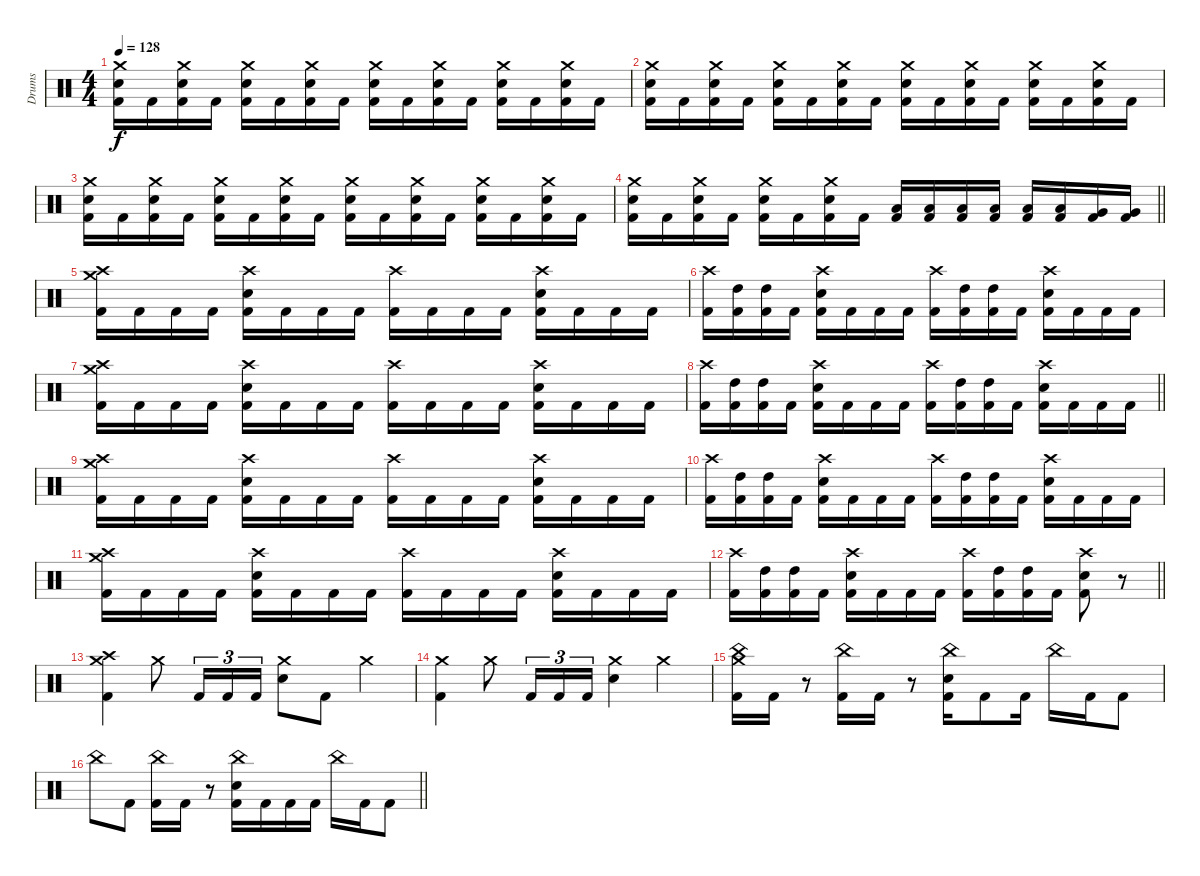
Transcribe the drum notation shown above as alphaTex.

\track ("Drums" "Drums") {instrument percussion}
\staff {score}
\articulation defaults
\ts (4 4)
\tempo 128
\clef neutral
\ks c
("Crash medium (hit)" "Electric Snare (hit)" "Kick (hit) 2").16{dy f} "Kick (hit) 2".16 ("Crash medium (hit)" "Electric Snare (hit)" "Kick (hit) 2").16 "Kick (hit) 2".16 ("Crash medium (hit)" "Electric Snare (hit)" "Kick (hit) 2").16 "Kick (hit) 2".16 ("Crash medium (hit)" "Electric Snare (hit)" "Kick (hit) 2").16 "Kick (hit) 2".16 ("Crash medium (hit)" "Electric Snare (hit)" "Kick (hit) 2").16 "Kick (hit) 2".16 ("Crash medium (hit)" "Electric Snare (hit)" "Kick (hit) 2").16 "Kick (hit) 2".16 ("Crash medium (hit)" "Electric Snare (hit)" "Kick (hit) 2").16 "Kick (hit) 2".16 ("Crash medium (hit)" "Electric Snare (hit)" "Kick (hit) 2").16 "Kick (hit) 2".16 |
("Crash medium (hit)" "Electric Snare (hit)" "Kick (hit) 2").16 "Kick (hit) 2".16 ("Crash medium (hit)" "Electric Snare (hit)" "Kick (hit) 2").16 "Kick (hit) 2".16 ("Crash medium (hit)" "Electric Snare (hit)" "Kick (hit) 2").16 "Kick (hit) 2".16 ("Crash medium (hit)" "Electric Snare (hit)" "Kick (hit) 2").16 "Kick (hit) 2".16 ("Crash medium (hit)" "Electric Snare (hit)" "Kick (hit) 2").16 "Kick (hit) 2".16 ("Crash medium (hit)" "Electric Snare (hit)" "Kick (hit) 2").16 "Kick (hit) 2".16 ("Crash medium (hit)" "Electric Snare (hit)" "Kick (hit) 2").16 "Kick (hit) 2".16 ("Crash medium (hit)" "Electric Snare (hit)" "Kick (hit) 2").16 "Kick (hit) 2".16 |
("Crash medium (hit)" "Electric Snare (hit)" "Kick (hit) 2").16 "Kick (hit) 2".16 ("Crash medium (hit)" "Electric Snare (hit)" "Kick (hit) 2").16 "Kick (hit) 2".16 ("Crash medium (hit)" "Electric Snare (hit)" "Kick (hit) 2").16 "Kick (hit) 2".16 ("Crash medium (hit)" "Electric Snare (hit)" "Kick (hit) 2").16 "Kick (hit) 2".16 ("Crash medium (hit)" "Electric Snare (hit)" "Kick (hit) 2").16 "Kick (hit) 2".16 ("Crash medium (hit)" "Electric Snare (hit)" "Kick (hit) 2").16 "Kick (hit) 2".16 ("Crash medium (hit)" "Electric Snare (hit)" "Kick (hit) 2").16 "Kick (hit) 2".16 ("Crash medium (hit)" "Electric Snare (hit)" "Kick (hit) 2").16 "Kick (hit) 2".16 |
\barLineRight lightlight
("Crash medium (hit)" "Electric Snare (hit)" "Kick (hit) 2").16 "Kick (hit) 2".16 ("Crash medium (hit)" "Electric Snare (hit)" "Kick (hit) 2").16 "Kick (hit) 2".16 ("Crash medium (hit)" "Electric Snare (hit)" "Kick (hit) 2").16 "Kick (hit) 2".16 ("Crash medium (hit)" "Electric Snare (hit)" "Kick (hit) 2").16 "Kick (hit) 2".16 ("Low Tom (hit)" "Kick (hit) 2").16 ("Low Tom (hit)" "Kick (hit) 2").16 ("Low Tom (hit)" "Kick (hit) 2").16 ("Low Tom (hit)" "Kick (hit) 2").16 ("Low Tom (hit)" "Kick (hit) 2").16 ("Low Tom (hit)" "Kick (hit) 2").16 ("Very Low Tom (hit)" "Kick (hit) 2").16 ("Very Low Tom (hit)" "Kick (hit) 2").16 |
("Crash high (hit)" "Crash medium (hit)" "Kick (hit) 2").16 "Kick (hit) 2".16 "Kick (hit) 2".16 "Kick (hit) 2".16 ("Crash high (hit)" "Electric Snare (hit)" "Kick (hit) 2").16 "Kick (hit) 2".16 "Kick (hit) 2".16 "Kick (hit) 2".16 ("Crash high (hit)" "Kick (hit) 2").16 "Kick (hit) 2".16 "Kick (hit) 2".16 "Kick (hit) 2".16 ("Crash high (hit)" "Electric Snare (hit)" "Kick (hit) 2").16 "Kick (hit) 2".16 "Kick (hit) 2".16 "Kick (hit) 2".16 |
("Crash high (hit)" "Kick (hit) 2").16 ("High Tom (hit)" "Kick (hit) 2").16 ("High Tom (hit)" "Kick (hit) 2").16 "Kick (hit) 2".16 ("Crash high (hit)" "Electric Snare (hit)" "Kick (hit) 2").16 "Kick (hit) 2".16 "Kick (hit) 2".16 "Kick (hit) 2".16 ("Crash high (hit)" "Kick (hit) 2").16 ("High Tom (hit)" "Kick (hit) 2").16 ("High Tom (hit)" "Kick (hit) 2").16 "Kick (hit) 2".16 ("Crash high (hit)" "Electric Snare (hit)" "Kick (hit) 2").16 "Kick (hit) 2".16 "Kick (hit) 2".16 "Kick (hit) 2".16 |
("Crash high (hit)" "Crash medium (hit)" "Kick (hit) 2").16 "Kick (hit) 2".16 "Kick (hit) 2".16 "Kick (hit) 2".16 ("Crash high (hit)" "Electric Snare (hit)" "Kick (hit) 2").16 "Kick (hit) 2".16 "Kick (hit) 2".16 "Kick (hit) 2".16 ("Crash high (hit)" "Kick (hit) 2").16 "Kick (hit) 2".16 "Kick (hit) 2".16 "Kick (hit) 2".16 ("Crash high (hit)" "Electric Snare (hit)" "Kick (hit) 2").16 "Kick (hit) 2".16 "Kick (hit) 2".16 "Kick (hit) 2".16 |
\barLineRight lightlight
("Crash high (hit)" "Kick (hit) 2").16 ("High Tom (hit)" "Kick (hit) 2").16 ("High Tom (hit)" "Kick (hit) 2").16 "Kick (hit) 2".16 ("Crash high (hit)" "Electric Snare (hit)" "Kick (hit) 2").16 "Kick (hit) 2".16 "Kick (hit) 2".16 "Kick (hit) 2".16 ("Crash high (hit)" "Kick (hit) 2").16 ("High Tom (hit)" "Kick (hit) 2").16 ("High Tom (hit)" "Kick (hit) 2").16 "Kick (hit) 2".16 ("Crash high (hit)" "Electric Snare (hit)" "Kick (hit) 2").16 "Kick (hit) 2".16 "Kick (hit) 2".16 "Kick (hit) 2".16 |
("Crash high (hit)" "Crash medium (hit)" "Kick (hit) 2").16 "Kick (hit) 2".16 "Kick (hit) 2".16 "Kick (hit) 2".16 ("Crash high (hit)" "Electric Snare (hit)" "Kick (hit) 2").16 "Kick (hit) 2".16 "Kick (hit) 2".16 "Kick (hit) 2".16 ("Crash high (hit)" "Kick (hit) 2").16 "Kick (hit) 2".16 "Kick (hit) 2".16 "Kick (hit) 2".16 ("Crash high (hit)" "Electric Snare (hit)" "Kick (hit) 2").16 "Kick (hit) 2".16 "Kick (hit) 2".16 "Kick (hit) 2".16 |
("Crash high (hit)" "Kick (hit) 2").16 ("High Tom (hit)" "Kick (hit) 2").16 ("High Tom (hit)" "Kick (hit) 2").16 "Kick (hit) 2".16 ("Crash high (hit)" "Electric Snare (hit)" "Kick (hit) 2").16 "Kick (hit) 2".16 "Kick (hit) 2".16 "Kick (hit) 2".16 ("Crash high (hit)" "Kick (hit) 2").16 ("High Tom (hit)" "Kick (hit) 2").16 ("High Tom (hit)" "Kick (hit) 2").16 "Kick (hit) 2".16 ("Crash high (hit)" "Electric Snare (hit)" "Kick (hit) 2").16 "Kick (hit) 2".16 "Kick (hit) 2".16 "Kick (hit) 2".16 |
("Crash high (hit)" "Crash medium (hit)" "Kick (hit) 2").16 "Kick (hit) 2".16 "Kick (hit) 2".16 "Kick (hit) 2".16 ("Crash high (hit)" "Electric Snare (hit)" "Kick (hit) 2").16 "Kick (hit) 2".16 "Kick (hit) 2".16 "Kick (hit) 2".16 ("Crash high (hit)" "Kick (hit) 2").16 "Kick (hit) 2".16 "Kick (hit) 2".16 "Kick (hit) 2".16 ("Crash high (hit)" "Electric Snare (hit)" "Kick (hit) 2").16 "Kick (hit) 2".16 "Kick (hit) 2".16 "Kick (hit) 2".16 |
\barLineRight lightlight
("Crash high (hit)" "Kick (hit) 2").16 ("High Tom (hit)" "Kick (hit) 2").16 ("High Tom (hit)" "Kick (hit) 2").16 "Kick (hit) 2".16 ("Crash high (hit)" "Electric Snare (hit)" "Kick (hit) 2").16 "Kick (hit) 2".16 "Kick (hit) 2".16 "Kick (hit) 2".16 ("Crash high (hit)" "Kick (hit) 2").16 ("High Tom (hit)" "Kick (hit) 2").16 ("High Tom (hit)" "Kick (hit) 2").16 "Kick (hit) 2".16 ("Crash high (hit)" "Electric Snare (hit)" "Kick (hit) 2").8 r.8 |
("Crash high (hit)" "Crash medium (hit)" "Kick (hit) 2").4 "Crash medium (hit)".8 "Kick (hit) 2".16{tu (3 2)} "Kick (hit) 2".16{tu (3 2)} "Kick (hit) 2".16{tu (3 2)} ("Crash medium (hit)" "Electric Snare (hit)").8 "Kick (hit) 2".8 "Crash medium (hit)".4 |
("Crash medium (hit)" "Kick (hit) 2").4 "Crash medium (hit)".8 "Kick (hit) 2".16{tu (3 2)} "Kick (hit) 2".16{tu (3 2)} "Kick (hit) 2".16{tu (3 2)} ("Crash medium (hit)" "Electric Snare (hit)").4 "Crash medium (hit)".4 |
("China (hit)" "Crash medium (hit)" "Kick (hit) 2").16 "Kick (hit) 2".16 r.8 ("China (hit)" "Kick (hit) 2").16 "Kick (hit) 2".16 r.8 ("China (hit)" "Electric Snare (hit)" "Kick (hit) 2").16 "Kick (hit) 2".8 "Kick (hit) 2".16 "China (hit)".16 "Kick (hit) 2".16 "Kick (hit) 2".8 |
\barLineRight lightlight "China (hit)".8 "Kick (hit) 2".8
("China (hit)" "Kick (hit) 2").16 "Kick (hit) 2".16 r.8 ("China (hit)" "Electric Snare (hit)" "Kick (hit) 2").16 "Kick (hit) 2".16 "Kick (hit) 2".16 "Kick (hit) 2".16 "China (hit)".16 "Kick (hit) 2".16 "Kick (hit) 2".8
